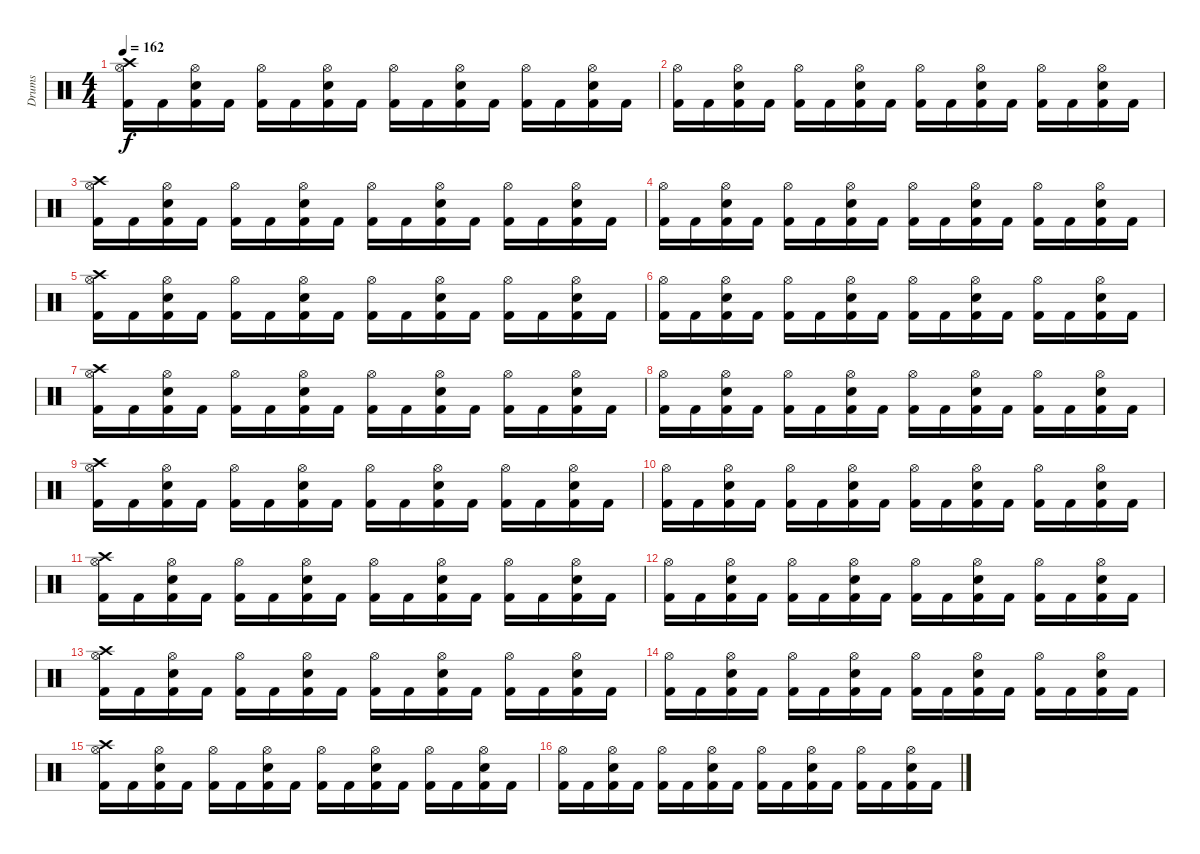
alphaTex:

\track ("Drums" "Drums") {instrument percussion}
\staff {score}
\articulation defaults
\ts (4 4)
\tempo 162
\clef neutral
\ks c
("Crash high (hit)" "Hi-Hat (open)" "Kick (hit) 2").16{dy f} "Kick (hit) 2".16 ("Electric Snare (hit)" "Hi-Hat (open)" "Kick (hit) 2").16 "Kick (hit) 2".16 ("Hi-Hat (open)" "Kick (hit) 2").16 "Kick (hit) 2".16 ("Electric Snare (hit)" "Hi-Hat (open)" "Kick (hit) 2").16 "Kick (hit) 2".16 ("Hi-Hat (open)" "Kick (hit) 2").16 "Kick (hit) 2".16 ("Electric Snare (hit)" "Hi-Hat (open)" "Kick (hit) 2").16 "Kick (hit) 2".16 ("Hi-Hat (open)" "Kick (hit) 2").16 "Kick (hit) 2".16 ("Electric Snare (hit)" "Hi-Hat (open)" "Kick (hit) 2").16 "Kick (hit) 2".16 |
("Hi-Hat (open)" "Kick (hit) 2").16 "Kick (hit) 2".16 ("Electric Snare (hit)" "Hi-Hat (open)" "Kick (hit) 2").16 "Kick (hit) 2".16 ("Hi-Hat (open)" "Kick (hit) 2").16 "Kick (hit) 2".16 ("Electric Snare (hit)" "Hi-Hat (open)" "Kick (hit) 2").16 "Kick (hit) 2".16 ("Hi-Hat (open)" "Kick (hit) 2").16 "Kick (hit) 2".16 ("Electric Snare (hit)" "Hi-Hat (open)" "Kick (hit) 2").16 "Kick (hit) 2".16 ("Hi-Hat (open)" "Kick (hit) 2").16 "Kick (hit) 2".16 ("Electric Snare (hit)" "Hi-Hat (open)" "Kick (hit) 2").16 "Kick (hit) 2".16 |
("Crash high (hit)" "Hi-Hat (open)" "Kick (hit) 2").16 "Kick (hit) 2".16 ("Electric Snare (hit)" "Hi-Hat (open)" "Kick (hit) 2").16 "Kick (hit) 2".16 ("Hi-Hat (open)" "Kick (hit) 2").16 "Kick (hit) 2".16 ("Electric Snare (hit)" "Hi-Hat (open)" "Kick (hit) 2").16 "Kick (hit) 2".16 ("Hi-Hat (open)" "Kick (hit) 2").16 "Kick (hit) 2".16 ("Electric Snare (hit)" "Hi-Hat (open)" "Kick (hit) 2").16 "Kick (hit) 2".16 ("Hi-Hat (open)" "Kick (hit) 2").16 "Kick (hit) 2".16 ("Electric Snare (hit)" "Hi-Hat (open)" "Kick (hit) 2").16 "Kick (hit) 2".16 |
("Hi-Hat (open)" "Kick (hit) 2").16 "Kick (hit) 2".16 ("Electric Snare (hit)" "Hi-Hat (open)" "Kick (hit) 2").16 "Kick (hit) 2".16 ("Hi-Hat (open)" "Kick (hit) 2").16 "Kick (hit) 2".16 ("Electric Snare (hit)" "Hi-Hat (open)" "Kick (hit) 2").16 "Kick (hit) 2".16 ("Hi-Hat (open)" "Kick (hit) 2").16 "Kick (hit) 2".16 ("Electric Snare (hit)" "Hi-Hat (open)" "Kick (hit) 2").16 "Kick (hit) 2".16 ("Hi-Hat (open)" "Kick (hit) 2").16 "Kick (hit) 2".16 ("Electric Snare (hit)" "Hi-Hat (open)" "Kick (hit) 2").16 "Kick (hit) 2".16 |
("Crash high (hit)" "Hi-Hat (open)" "Kick (hit) 2").16 "Kick (hit) 2".16 ("Electric Snare (hit)" "Hi-Hat (open)" "Kick (hit) 2").16 "Kick (hit) 2".16 ("Hi-Hat (open)" "Kick (hit) 2").16 "Kick (hit) 2".16 ("Electric Snare (hit)" "Hi-Hat (open)" "Kick (hit) 2").16 "Kick (hit) 2".16 ("Hi-Hat (open)" "Kick (hit) 2").16 "Kick (hit) 2".16 ("Electric Snare (hit)" "Hi-Hat (open)" "Kick (hit) 2").16 "Kick (hit) 2".16 ("Hi-Hat (open)" "Kick (hit) 2").16 "Kick (hit) 2".16 ("Electric Snare (hit)" "Hi-Hat (open)" "Kick (hit) 2").16 "Kick (hit) 2".16 |
("Hi-Hat (open)" "Kick (hit) 2").16 "Kick (hit) 2".16 ("Electric Snare (hit)" "Hi-Hat (open)" "Kick (hit) 2").16 "Kick (hit) 2".16 ("Hi-Hat (open)" "Kick (hit) 2").16 "Kick (hit) 2".16 ("Electric Snare (hit)" "Hi-Hat (open)" "Kick (hit) 2").16 "Kick (hit) 2".16 ("Hi-Hat (open)" "Kick (hit) 2").16 "Kick (hit) 2".16 ("Electric Snare (hit)" "Hi-Hat (open)" "Kick (hit) 2").16 "Kick (hit) 2".16 ("Hi-Hat (open)" "Kick (hit) 2").16 "Kick (hit) 2".16 ("Electric Snare (hit)" "Hi-Hat (open)" "Kick (hit) 2").16 "Kick (hit) 2".16 |
("Crash high (hit)" "Hi-Hat (open)" "Kick (hit) 2").16 "Kick (hit) 2".16 ("Electric Snare (hit)" "Hi-Hat (open)" "Kick (hit) 2").16 "Kick (hit) 2".16 ("Hi-Hat (open)" "Kick (hit) 2").16 "Kick (hit) 2".16 ("Electric Snare (hit)" "Hi-Hat (open)" "Kick (hit) 2").16 "Kick (hit) 2".16 ("Hi-Hat (open)" "Kick (hit) 2").16 "Kick (hit) 2".16 ("Electric Snare (hit)" "Hi-Hat (open)" "Kick (hit) 2").16 "Kick (hit) 2".16 ("Hi-Hat (open)" "Kick (hit) 2").16 "Kick (hit) 2".16 ("Electric Snare (hit)" "Hi-Hat (open)" "Kick (hit) 2").16 "Kick (hit) 2".16 |
("Hi-Hat (open)" "Kick (hit) 2").16 "Kick (hit) 2".16 ("Electric Snare (hit)" "Hi-Hat (open)" "Kick (hit) 2").16 "Kick (hit) 2".16 ("Hi-Hat (open)" "Kick (hit) 2").16 "Kick (hit) 2".16 ("Electric Snare (hit)" "Hi-Hat (open)" "Kick (hit) 2").16 "Kick (hit) 2".16 ("Hi-Hat (open)" "Kick (hit) 2").16 "Kick (hit) 2".16 ("Electric Snare (hit)" "Hi-Hat (open)" "Kick (hit) 2").16 "Kick (hit) 2".16 ("Hi-Hat (open)" "Kick (hit) 2").16 "Kick (hit) 2".16 ("Electric Snare (hit)" "Hi-Hat (open)" "Kick (hit) 2").16 "Kick (hit) 2".16 |
("Crash high (hit)" "Hi-Hat (open)" "Kick (hit) 2").16 "Kick (hit) 2".16 ("Electric Snare (hit)" "Hi-Hat (open)" "Kick (hit) 2").16 "Kick (hit) 2".16 ("Hi-Hat (open)" "Kick (hit) 2").16 "Kick (hit) 2".16 ("Electric Snare (hit)" "Hi-Hat (open)" "Kick (hit) 2").16 "Kick (hit) 2".16 ("Hi-Hat (open)" "Kick (hit) 2").16 "Kick (hit) 2".16 ("Electric Snare (hit)" "Hi-Hat (open)" "Kick (hit) 2").16 "Kick (hit) 2".16 ("Hi-Hat (open)" "Kick (hit) 2").16 "Kick (hit) 2".16 ("Electric Snare (hit)" "Hi-Hat (open)" "Kick (hit) 2").16 "Kick (hit) 2".16 |
("Hi-Hat (open)" "Kick (hit) 2").16 "Kick (hit) 2".16 ("Electric Snare (hit)" "Hi-Hat (open)" "Kick (hit) 2").16 "Kick (hit) 2".16 ("Hi-Hat (open)" "Kick (hit) 2").16 "Kick (hit) 2".16 ("Electric Snare (hit)" "Hi-Hat (open)" "Kick (hit) 2").16 "Kick (hit) 2".16 ("Hi-Hat (open)" "Kick (hit) 2").16 "Kick (hit) 2".16 ("Electric Snare (hit)" "Hi-Hat (open)" "Kick (hit) 2").16 "Kick (hit) 2".16 ("Hi-Hat (open)" "Kick (hit) 2").16 "Kick (hit) 2".16 ("Electric Snare (hit)" "Hi-Hat (open)" "Kick (hit) 2").16 "Kick (hit) 2".16 |
("Crash high (hit)" "Hi-Hat (open)" "Kick (hit) 2").16 "Kick (hit) 2".16 ("Electric Snare (hit)" "Hi-Hat (open)" "Kick (hit) 2").16 "Kick (hit) 2".16 ("Hi-Hat (open)" "Kick (hit) 2").16 "Kick (hit) 2".16 ("Electric Snare (hit)" "Hi-Hat (open)" "Kick (hit) 2").16 "Kick (hit) 2".16 ("Hi-Hat (open)" "Kick (hit) 2").16 "Kick (hit) 2".16 ("Electric Snare (hit)" "Hi-Hat (open)" "Kick (hit) 2").16 "Kick (hit) 2".16 ("Hi-Hat (open)" "Kick (hit) 2").16 "Kick (hit) 2".16 ("Electric Snare (hit)" "Hi-Hat (open)" "Kick (hit) 2").16 "Kick (hit) 2".16 |
("Hi-Hat (open)" "Kick (hit) 2").16 "Kick (hit) 2".16 ("Electric Snare (hit)" "Hi-Hat (open)" "Kick (hit) 2").16 "Kick (hit) 2".16 ("Hi-Hat (open)" "Kick (hit) 2").16 "Kick (hit) 2".16 ("Electric Snare (hit)" "Hi-Hat (open)" "Kick (hit) 2").16 "Kick (hit) 2".16 ("Hi-Hat (open)" "Kick (hit) 2").16 "Kick (hit) 2".16 ("Electric Snare (hit)" "Hi-Hat (open)" "Kick (hit) 2").16 "Kick (hit) 2".16 ("Hi-Hat (open)" "Kick (hit) 2").16 "Kick (hit) 2".16 ("Electric Snare (hit)" "Hi-Hat (open)" "Kick (hit) 2").16 "Kick (hit) 2".16 |
("Crash high (hit)" "Hi-Hat (open)" "Kick (hit) 2").16 "Kick (hit) 2".16 ("Electric Snare (hit)" "Hi-Hat (open)" "Kick (hit) 2").16 "Kick (hit) 2".16 ("Hi-Hat (open)" "Kick (hit) 2").16 "Kick (hit) 2".16 ("Electric Snare (hit)" "Hi-Hat (open)" "Kick (hit) 2").16 "Kick (hit) 2".16 ("Hi-Hat (open)" "Kick (hit) 2").16 "Kick (hit) 2".16 ("Electric Snare (hit)" "Hi-Hat (open)" "Kick (hit) 2").16 "Kick (hit) 2".16 ("Hi-Hat (open)" "Kick (hit) 2").16 "Kick (hit) 2".16 ("Electric Snare (hit)" "Hi-Hat (open)" "Kick (hit) 2").16 "Kick (hit) 2".16 |
("Hi-Hat (open)" "Kick (hit) 2").16 "Kick (hit) 2".16 ("Electric Snare (hit)" "Hi-Hat (open)" "Kick (hit) 2").16 "Kick (hit) 2".16 ("Hi-Hat (open)" "Kick (hit) 2").16 "Kick (hit) 2".16 ("Electric Snare (hit)" "Hi-Hat (open)" "Kick (hit) 2").16 "Kick (hit) 2".16 ("Hi-Hat (open)" "Kick (hit) 2").16 "Kick (hit) 2".16 ("Electric Snare (hit)" "Hi-Hat (open)" "Kick (hit) 2").16 "Kick (hit) 2".16 ("Hi-Hat (open)" "Kick (hit) 2").16 "Kick (hit) 2".16 ("Electric Snare (hit)" "Hi-Hat (open)" "Kick (hit) 2").16 "Kick (hit) 2".16 |
("Crash high (hit)" "Hi-Hat (open)" "Kick (hit) 2").16 "Kick (hit) 2".16 ("Electric Snare (hit)" "Hi-Hat (open)" "Kick (hit) 2").16 "Kick (hit) 2".16 ("Hi-Hat (open)" "Kick (hit) 2").16 "Kick (hit) 2".16 ("Electric Snare (hit)" "Hi-Hat (open)" "Kick (hit) 2").16 "Kick (hit) 2".16 ("Hi-Hat (open)" "Kick (hit) 2").16 "Kick (hit) 2".16 ("Electric Snare (hit)" "Hi-Hat (open)" "Kick (hit) 2").16 "Kick (hit) 2".16 ("Hi-Hat (open)" "Kick (hit) 2").16 "Kick (hit) 2".16 ("Electric Snare (hit)" "Hi-Hat (open)" "Kick (hit) 2").16 "Kick (hit) 2".16 |
("Hi-Hat (open)" "Kick (hit) 2").16 "Kick (hit) 2".16 ("Electric Snare (hit)" "Hi-Hat (open)" "Kick (hit) 2").16 "Kick (hit) 2".16 ("Hi-Hat (open)" "Kick (hit) 2").16 "Kick (hit) 2".16 ("Electric Snare (hit)" "Hi-Hat (open)" "Kick (hit) 2").16 "Kick (hit) 2".16 ("Hi-Hat (open)" "Kick (hit) 2").16 "Kick (hit) 2".16 ("Electric Snare (hit)" "Hi-Hat (open)" "Kick (hit) 2").16 "Kick (hit) 2".16 ("Hi-Hat (open)" "Kick (hit) 2").16 "Kick (hit) 2".16 ("Electric Snare (hit)" "Hi-Hat (open)" "Kick (hit) 2").16 "Kick (hit) 2".16
